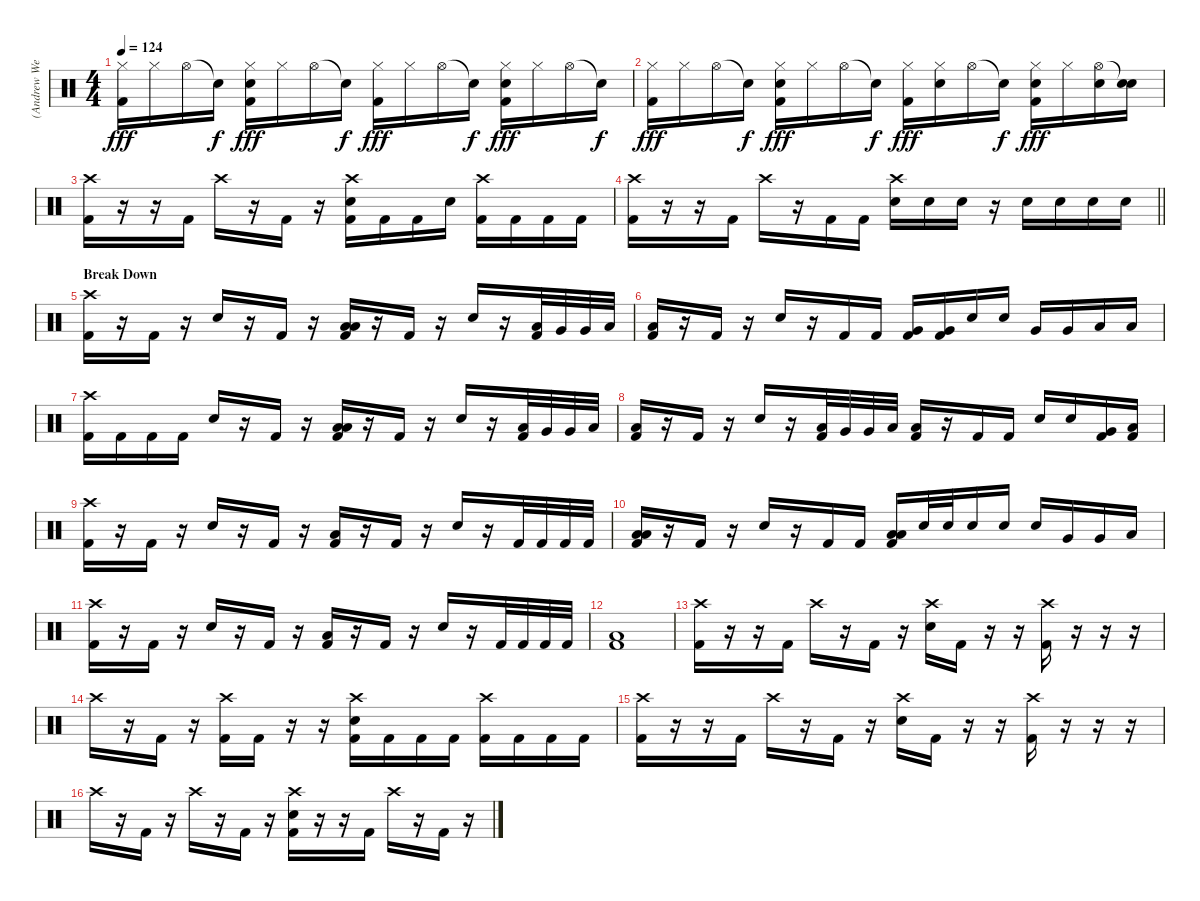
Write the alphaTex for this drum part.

\track ("(Andrew Wetzel) Drums" "(Andrew We") {instrument percussion}
\staff {score}
\articulation defaults
\ts (4 4)
\tempo 124
\clef neutral
\ks c
("Hi-Hat (closed)" "Kick (hit) 2").16{dy fff} "Hi-Hat (closed)".16 "Hi-Hat (open)".16 "Snare (hit)"{t}.16{dy f} ("Hi-Hat (closed)" "Electric Snare (hit)" "Kick (hit) 2").16{dy fff} "Hi-Hat (closed)".16 "Hi-Hat (open)".16 "Snare (hit)"{t}.16{dy f} ("Hi-Hat (closed)" "Kick (hit) 2").16{dy fff} "Hi-Hat (closed)".16 "Hi-Hat (open)".16 "Snare (hit)"{t}.16{dy f} ("Hi-Hat (closed)" "Electric Snare (hit)" "Kick (hit) 2").16{dy fff} "Hi-Hat (closed)".16 "Hi-Hat (open)".16 "Snare (hit)"{t}.16{dy f} |
("Hi-Hat (closed)" "Kick (hit) 2").16{dy fff} "Hi-Hat (closed)".16 "Hi-Hat (open)".16 "Snare (hit)"{t}.16{dy f} ("Hi-Hat (closed)" "Electric Snare (hit)" "Kick (hit) 2").16{dy fff} "Hi-Hat (closed)".16 "Hi-Hat (open)".16 "Snare (hit)"{t}.16{dy f} ("Hi-Hat (closed)" "Kick (hit) 2").16{dy fff} ("Hi-Hat (closed)" "Electric Snare (hit)").16 "Hi-Hat (open)".16 "Snare (hit)"{t}.16{dy f} ("Hi-Hat (closed)" "Electric Snare (hit)" "Kick (hit) 2").16{dy fff} "Hi-Hat (closed)".16 ("Hi-Hat (open)" "Electric Snare (hit)").16 ("Snare (hit)"{t} "Electric Snare (hit)").16 |
("Crash high (hit)" "Kick (hit) 2").16 r.16 r.16 "Kick (hit) 2".16 "Crash high (hit)".16 r.16 "Kick (hit) 2".16 r.16 ("Crash high (hit)" "Electric Snare (hit)" "Kick (hit) 2").16 "Kick (hit) 2".16 "Kick (hit) 2".16 "Electric Snare (hit)".16 ("Crash high (hit)" "Kick (hit) 2").16 "Kick (hit) 2".16 "Kick (hit) 2".16 "Kick (hit) 2".16 |
\barLineRight lightlight
("Crash high (hit)" "Kick (hit) 2").16 r.16 r.16 "Kick (hit) 2".16 "Crash high (hit)".16 r.16 "Kick (hit) 2".16 "Kick (hit) 2".16 ("Crash high (hit)" "Electric Snare (hit)").16 "Electric Snare (hit)".16 "Electric Snare (hit)".16 r.16 "Electric Snare (hit)".16 "Electric Snare (hit)".16 "Electric Snare (hit)".16 "Electric Snare (hit)".16 |
\section ("" "Break Down")
("Crash high (hit)" "Kick (hit) 2").16 r.16 "Kick (hit) 2".16 r.16 "Electric Snare (hit)".16 r.16 "Kick (hit) 2".16 r.16 ("Low Tom (hit)" "Low Floor Tom (hit)" "Kick (hit) 2").16 r.16 "Kick (hit) 2".16 r.16 "Electric Snare (hit)".16 r.16 ("Low Tom (hit)" "Kick (hit) 2").32 "Very Low Tom (hit)".32 "Very Low Tom (hit)".32 "Low Floor Tom (hit)".32 |
("Low Floor Tom (hit)" "Kick (hit) 2").16 r.16 "Kick (hit) 2".16 r.16 "Electric Snare (hit)".16 r.16 "Kick (hit) 2".16 "Kick (hit) 2".16 ("Very Low Tom (hit)" "Kick (hit) 2").16 ("Very Low Tom (hit)" "Kick (hit) 2").16 "Electric Snare (hit)".16 "Electric Snare (hit)".16 "Very Low Tom (hit)".16 "Very Low Tom (hit)".16 "Low Floor Tom (hit)".16 "Low Floor Tom (hit)".16 |
("Crash high (hit)" "Kick (hit) 2").16 "Kick (hit) 2".16 "Kick (hit) 2".16 "Kick (hit) 2".16 "Electric Snare (hit)".16 r.16 "Kick (hit) 2".16 r.16 ("Low Tom (hit)" "Low Floor Tom (hit)" "Kick (hit) 2").16 r.16 "Kick (hit) 2".16 r.16 "Electric Snare (hit)".16 r.16 ("Low Tom (hit)" "Kick (hit) 2").32 "Very Low Tom (hit)".32 "Very Low Tom (hit)".32 "Low Floor Tom (hit)".32 |
("Low Floor Tom (hit)" "Kick (hit) 2").16 r.16 "Kick (hit) 2".16 r.16 "Electric Snare (hit)".16 r.16 ("Low Tom (hit)" "Kick (hit) 2").32 "Very Low Tom (hit)".32 "Very Low Tom (hit)".32 "Low Floor Tom (hit)".32 ("Low Floor Tom (hit)" "Kick (hit) 2").16 r.16 "Kick (hit) 2".16 "Kick (hit) 2".16 "Electric Snare (hit)".16 "Electric Snare (hit)".16 ("Very Low Tom (hit)" "Kick (hit) 2").16 ("Low Floor Tom (hit)" "Kick (hit) 2").16 |
("Crash high (hit)" "Kick (hit) 2").16 r.16 "Kick (hit) 2".16 r.16 "Electric Snare (hit)".16 r.16 "Kick (hit) 2".16 r.16 ("Low Floor Tom (hit)" "Kick (hit) 2").16 r.16 "Kick (hit) 2".16 r.16 "Electric Snare (hit)".16 r.16 "Kick (hit) 2".32 "Kick (hit) 2".32 "Kick (hit) 2".32 "Kick (hit) 2".32 |
("Low Tom (hit)" "Low Floor Tom (hit)" "Kick (hit) 2").16 r.16 "Kick (hit) 2".16 r.16 "Electric Snare (hit)".16 r.16 "Kick (hit) 2".16 "Kick (hit) 2".16 ("Low Tom (hit)" "Low Floor Tom (hit)" "Kick (hit) 2").16 "Electric Snare (hit)".32 "Electric Snare (hit)".32 "Electric Snare (hit)".16 "Electric Snare (hit)".16 "Electric Snare (hit)".16 "Very Low Tom (hit)".16 "Very Low Tom (hit)".16 "Low Floor Tom (hit)".16 |
("Crash high (hit)" "Kick (hit) 2").16 r.16 "Kick (hit) 2".16 r.16 "Electric Snare (hit)".16 r.16 "Kick (hit) 2".16 r.16 ("Low Floor Tom (hit)" "Kick (hit) 2").16 r.16 "Kick (hit) 2".16 r.16 "Electric Snare (hit)".16 r.16 "Kick (hit) 2".32 "Kick (hit) 2".32 "Kick (hit) 2".32 "Kick (hit) 2".32 |
("Low Floor Tom (hit)" "Kick (hit) 2").1 |
("Crash high (hit)" "Kick (hit) 2").16 r.16 r.16 "Kick (hit) 2".16 "Crash high (hit)".16 r.16 "Kick (hit) 2".16 r.16 ("Crash high (hit)" "Electric Snare (hit)").16 "Kick (hit) 2".16 r.16 r.16 ("Crash high (hit)" "Kick (hit) 2").16 r.16 r.16 r.16 |
"Crash high (hit)".16 r.16 "Kick (hit) 2".16 r.16 ("Crash high (hit)" "Kick (hit) 2").16 "Kick (hit) 2".16 r.16 r.16 ("Crash high (hit)" "Electric Snare (hit)" "Kick (hit) 2").16 "Kick (hit) 2".16 "Kick (hit) 2".16 "Kick (hit) 2".16 ("Crash high (hit)" "Kick (hit) 2").16 "Kick (hit) 2".16 "Kick (hit) 2".16 "Kick (hit) 2".16 |
("Crash high (hit)" "Kick (hit) 2").16 r.16 r.16 "Kick (hit) 2".16 "Crash high (hit)".16 r.16 "Kick (hit) 2".16 r.16 ("Crash high (hit)" "Electric Snare (hit)").16 "Kick (hit) 2".16 r.16 r.16 ("Crash high (hit)" "Kick (hit) 2").16 r.16 r.16 r.16 |
"Crash high (hit)".16 r.16 "Kick (hit) 2".16 r.16 "Crash high (hit)".16 r.16 "Kick (hit) 2".16 r.16 ("Crash high (hit)" "Electric Snare (hit)" "Kick (hit) 2").16 r.16 r.16 "Kick (hit) 2".16 "Crash high (hit)".16 r.16 "Kick (hit) 2".16 r.16
